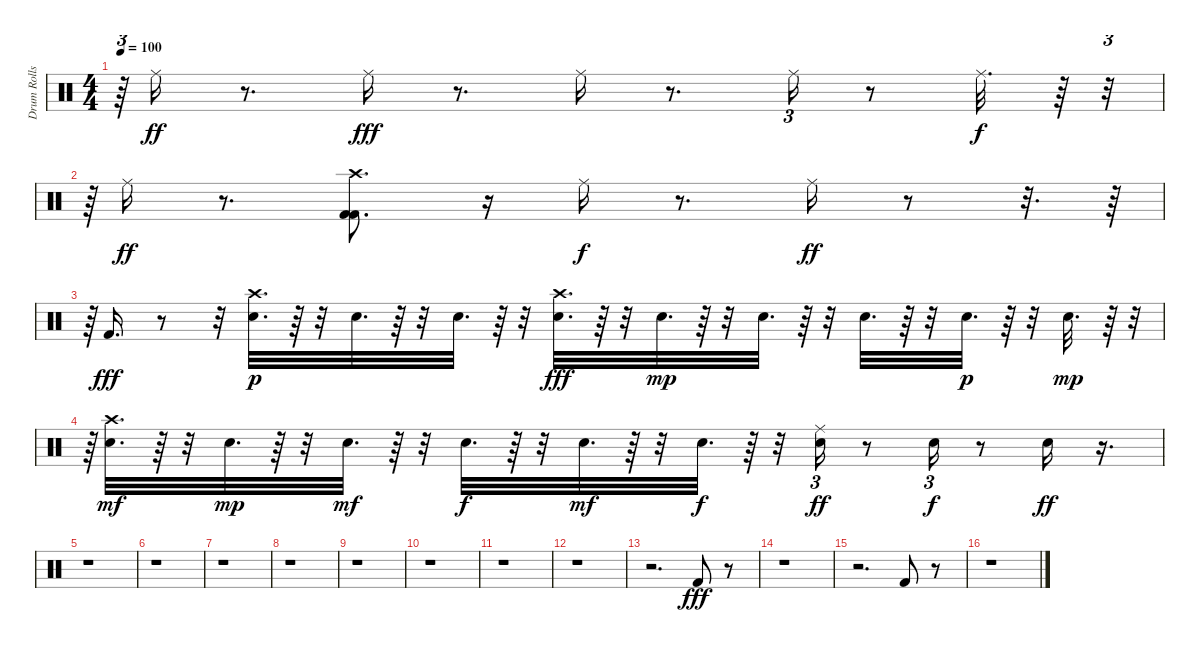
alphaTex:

\track ("Drum Rolls" "Drum Rolls") {instrument percussion}
\staff {score}
\articulation defaults
\ts (4 4)
\tempo 100
\clef neutral
\ks c
r.64{tu (3 2) dy mf} "Ride (middle)".16{dy ff} r.8{d} "Ride (middle)".16{dy fff} r.8{d} "Ride (middle)".16 r.8{d} "Ride (middle)".16{tu (3 2)} r.8 "Ride (middle)".32{d dy f} r.64 r.32{tu (3 2)} |
r.64{tu (3 2)} "Ride (middle)".16{dy ff} r.8{d} ("Crash high (hit)" "Kick (hit) 2" "Kick (hit) 2").8{d} r.16 "Ride (middle)".16{dy f} r.8{d} "Ride (middle)".16{dy ff} r.8 r.32{d} r.64 |
r.64{tu (3 2)} "Kick (hit) 2".16{d dy fff} r.8 r.32 ("Crash high (hit)" "Electric Snare (hit)").32{d dy p} r.64 r.32 "Electric Snare (hit)".32{d} r.64 r.32 "Electric Snare (hit)".32{d} r.64 r.32 ("Electric Snare (hit)" "Crash high (hit)").32{d dy fff} r.64 r.32 "Electric Snare (hit)".32{d dy mp} r.64 r.32 "Electric Snare (hit)".32{d} r.64 r.32 "Electric Snare (hit)".32{d} r.64 r.32 "Electric Snare (hit)".32{d dy p} r.64 r.32 "Electric Snare (hit)".32{d dy mp} r.64 r.32{tu (3 2)} |
r.64{tu (3 2)} ("Crash high (hit)" "Electric Snare (hit)").32{d dy mf} r.64 r.32 "Electric Snare (hit)".32{d dy mp} r.64 r.32 "Electric Snare (hit)".32{d dy mf} r.64 r.32 "Electric Snare (hit)".32{d dy f} r.64 r.32 "Electric Snare (hit)".32{d dy mf} r.64 r.32 "Electric Snare (hit)".32{d dy f} r.64 r.32 ("Ride (middle)" "Electric Snare (hit)").16{tu (3 2) dy ff} r.8 "Electric Snare (hit)".16{tu (3 2) dy f} r.8 "Electric Snare (hit)".16{dy ff} r.16{d} |
r.1 |
r.1 |
r.1 |
r.1 |
r.1 |
r.1 |
r.1 |
r.1 |
r.2{d} "Kick (hit) 2".8{dy fff} r.8 |
r.1 |
r.2{d} "Kick (hit) 2".8 r.8 |
r.1
